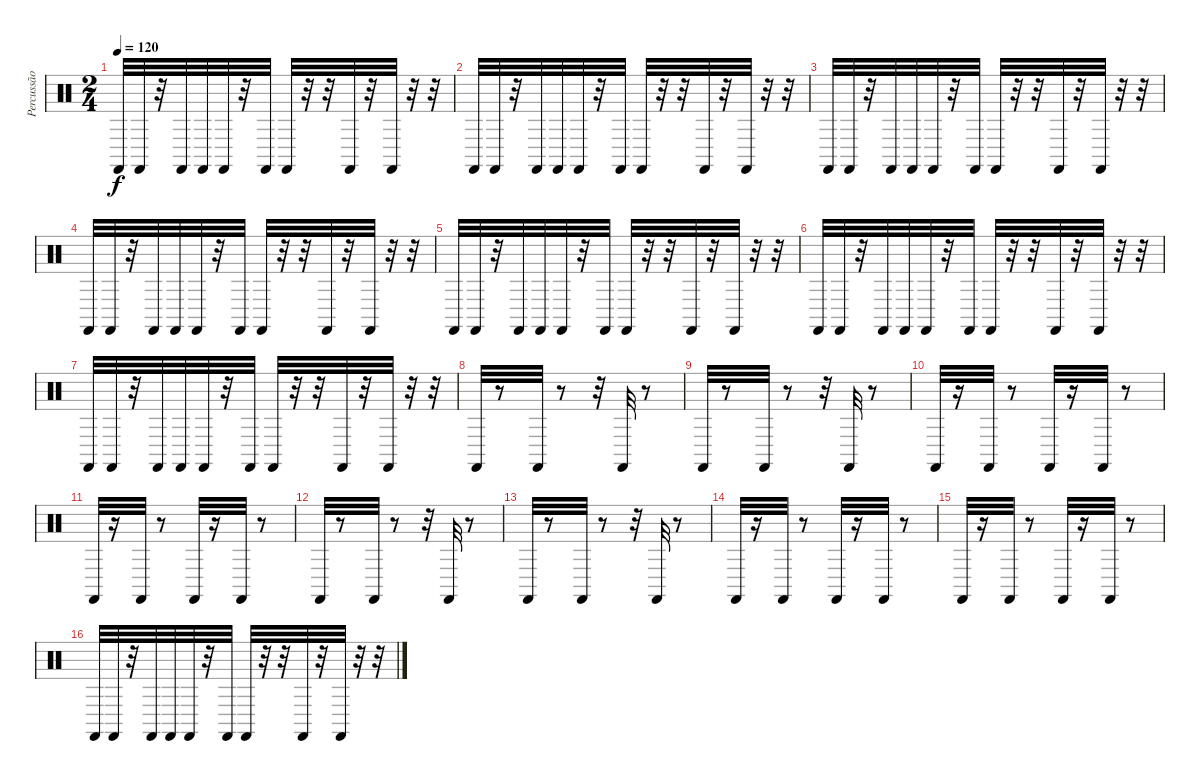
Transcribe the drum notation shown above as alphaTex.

\track ("Percussão" "Percussão") {instrument percussion}
\staff {score}
\articulation defaults
\ts (2 4)
\tempo 120
\clef neutral
\ks c "Castanets (hit)".32{dy f} "Castanets (hit)".32
r.32 "Castanets (hit)".32 "Castanets (hit)".32 "Castanets (hit)".32 r.32 "Castanets (hit)".32 "Castanets (hit)".32 r.32 r.32 "Castanets (hit)".32 r.32 "Castanets (hit)".32 r.32 r.32 |
"Castanets (hit)".32 "Castanets (hit)".32 r.32 "Castanets (hit)".32 "Castanets (hit)".32 "Castanets (hit)".32 r.32 "Castanets (hit)".32 "Castanets (hit)".32 r.32 r.32 "Castanets (hit)".32 r.32 "Castanets (hit)".32 r.32 r.32 |
"Castanets (hit)".32 "Castanets (hit)".32 r.32 "Castanets (hit)".32 "Castanets (hit)".32 "Castanets (hit)".32 r.32 "Castanets (hit)".32 "Castanets (hit)".32 r.32 r.32 "Castanets (hit)".32 r.32 "Castanets (hit)".32 r.32 r.32 |
"Castanets (hit)".32 "Castanets (hit)".32 r.32 "Castanets (hit)".32 "Castanets (hit)".32 "Castanets (hit)".32 r.32 "Castanets (hit)".32 "Castanets (hit)".32 r.32 r.32 "Castanets (hit)".32 r.32 "Castanets (hit)".32 r.32 r.32 |
"Castanets (hit)".32 "Castanets (hit)".32 r.32 "Castanets (hit)".32 "Castanets (hit)".32 "Castanets (hit)".32 r.32 "Castanets (hit)".32 "Castanets (hit)".32 r.32 r.32 "Castanets (hit)".32 r.32 "Castanets (hit)".32 r.32 r.32 |
"Castanets (hit)".32 "Castanets (hit)".32 r.32 "Castanets (hit)".32 "Castanets (hit)".32 "Castanets (hit)".32 r.32 "Castanets (hit)".32 "Castanets (hit)".32 r.32 r.32 "Castanets (hit)".32 r.32 "Castanets (hit)".32 r.32 r.32 |
"Castanets (hit)".32 "Castanets (hit)".32 r.32 "Castanets (hit)".32 "Castanets (hit)".32 "Castanets (hit)".32 r.32 "Castanets (hit)".32 "Castanets (hit)".32 r.32 r.32 "Castanets (hit)".32 r.32 "Castanets (hit)".32 r.32 r.32 |
"Castanets (hit)".32 r.8 "Castanets (hit)".32 r.8 r.32 "Castanets (hit)".32 r.8 |
"Castanets (hit)".32 r.8 "Castanets (hit)".32 r.8 r.32 "Castanets (hit)".32 r.8 |
"Castanets (hit)".32 r.16 "Castanets (hit)".32 r.8 "Castanets (hit)".32 r.16 "Castanets (hit)".32 r.8 |
"Castanets (hit)".32 r.16 "Castanets (hit)".32 r.8 "Castanets (hit)".32 r.16 "Castanets (hit)".32 r.8 |
"Castanets (hit)".32 r.8 "Castanets (hit)".32 r.8 r.32 "Castanets (hit)".32 r.8 |
"Castanets (hit)".32 r.8 "Castanets (hit)".32 r.8 r.32 "Castanets (hit)".32 r.8 |
"Castanets (hit)".32 r.16 "Castanets (hit)".32 r.8 "Castanets (hit)".32 r.16 "Castanets (hit)".32 r.8 |
"Castanets (hit)".32 r.16 "Castanets (hit)".32 r.8 "Castanets (hit)".32 r.16 "Castanets (hit)".32 r.8 |
"Castanets (hit)".32 "Castanets (hit)".32 r.32 "Castanets (hit)".32 "Castanets (hit)".32 "Castanets (hit)".32 r.32 "Castanets (hit)".32 "Castanets (hit)".32 r.32 r.32 "Castanets (hit)".32 r.32 "Castanets (hit)".32 r.32 r.32
